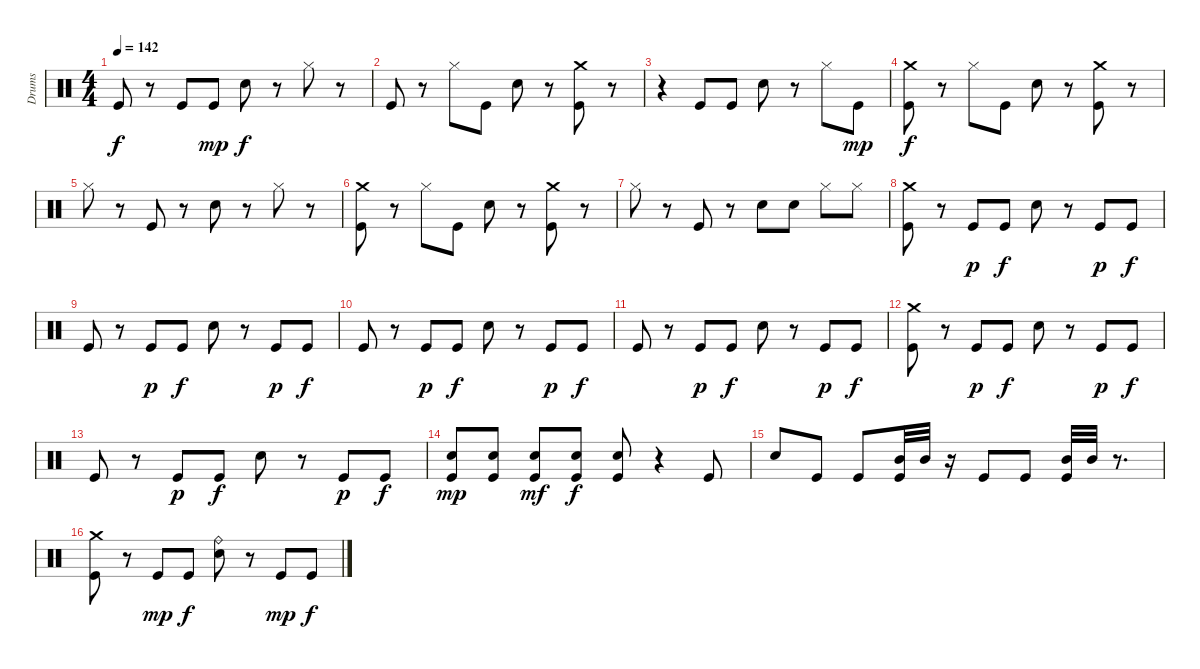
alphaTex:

\track ("Drums" "Drums") {instrument percussion}
\staff {score}
\articulation defaults
\ts (4 4)
\tempo 142
\clef neutral
\ks c "Kick (hit)".8{dy f}
r.8 "Kick (hit)".8 "Kick (hit)".8{dy mp} "Electric Snare (hit)".8{dy f} r.8 "Hi-Hat (closed)".8 r.8 |
"Kick (hit)".8 r.8 "Hi-Hat (closed)".8 "Kick (hit)".8 "Electric Snare (hit)".8 r.8 ("Crash medium (hit)" "Kick (hit)").8 r.8 |
r.4 "Kick (hit)".8 "Kick (hit)".8 "Electric Snare (hit)".8 r.8 "Hi-Hat (closed)".8 "Kick (hit)".8{dy mp} |
("Crash medium (hit)" "Kick (hit)").8{dy f} r.8 "Hi-Hat (closed)".8 "Kick (hit)".8 "Electric Snare (hit)".8 r.8 ("Crash medium (hit)" "Kick (hit)").8 r.8 |
"Hi-Hat (closed)".8 r.8 "Kick (hit)".8 r.8 "Electric Snare (hit)".8 r.8 "Hi-Hat (closed)".8 r.8 |
("Crash medium (hit)" "Kick (hit)").8 r.8 "Hi-Hat (closed)".8 "Kick (hit)".8 "Electric Snare (hit)".8 r.8 ("Crash medium (hit)" "Kick (hit)").8 r.8 |
"Hi-Hat (closed)".8 r.8 "Kick (hit)".8 r.8 "Electric Snare (hit)".8 "Electric Snare (hit)".8 "Hi-Hat (closed)".8 "Hi-Hat (closed)".8 |
("Crash medium (hit)" "Kick (hit)").8 r.8 "Kick (hit)".8{dy p} "Kick (hit)".8{dy f} "Electric Snare (hit)".8 r.8 "Kick (hit)".8{dy p} "Kick (hit)".8{dy f} |
"Kick (hit)".8 r.8 "Kick (hit)".8{dy p} "Kick (hit)".8{dy f} "Electric Snare (hit)".8 r.8 "Kick (hit)".8{dy p} "Kick (hit)".8{dy f} |
"Kick (hit)".8 r.8 "Kick (hit)".8{dy p} "Kick (hit)".8{dy f} "Electric Snare (hit)".8 r.8 "Kick (hit)".8{dy p} "Kick (hit)".8{dy f} |
"Kick (hit)".8 r.8 "Kick (hit)".8{dy p} "Kick (hit)".8{dy f} "Electric Snare (hit)".8 r.8 "Kick (hit)".8{dy p} "Kick (hit)".8{dy f} |
("Crash medium (hit)" "Kick (hit)").8 r.8 "Kick (hit)".8{dy p} "Kick (hit)".8{dy f} "Electric Snare (hit)".8 r.8 "Kick (hit)".8{dy p} "Kick (hit)".8{dy f} |
"Kick (hit)".8 r.8 "Kick (hit)".8{dy p} "Kick (hit)".8{dy f} "Electric Snare (hit)".8 r.8 "Kick (hit)".8{dy p} "Kick (hit)".8{dy f} |
("Electric Snare (hit)" "Kick (hit)").8{dy mp} ("Electric Snare (hit)" "Kick (hit)").8 ("Electric Snare (hit)" "Kick (hit)").8{dy mf} ("Electric Snare (hit)" "Kick (hit)").8{dy f} ("Electric Snare (hit)" "Kick (hit)").8 r.4 "Kick (hit)".8 |
"Electric Snare (hit)".8 "Kick (hit)".8 "Kick (hit)".8 ("Kick (hit)" "Mid Tom (hit)").32 "Mid Tom (hit)".32 r.16 "Kick (hit)".8 "Kick (hit)".8 ("Kick (hit)" "Mid Tom (hit)").32 "Mid Tom (hit)".32 r.8{d} |
("Crash medium (hit)" "Kick (hit)").8 r.8 "Kick (hit)".8{dy mp} "Kick (hit)".8{dy f} ("Ride (bell)" "Electric Snare (hit)").8 r.8 "Kick (hit)".8{dy mp} "Kick (hit)".8{dy f}
